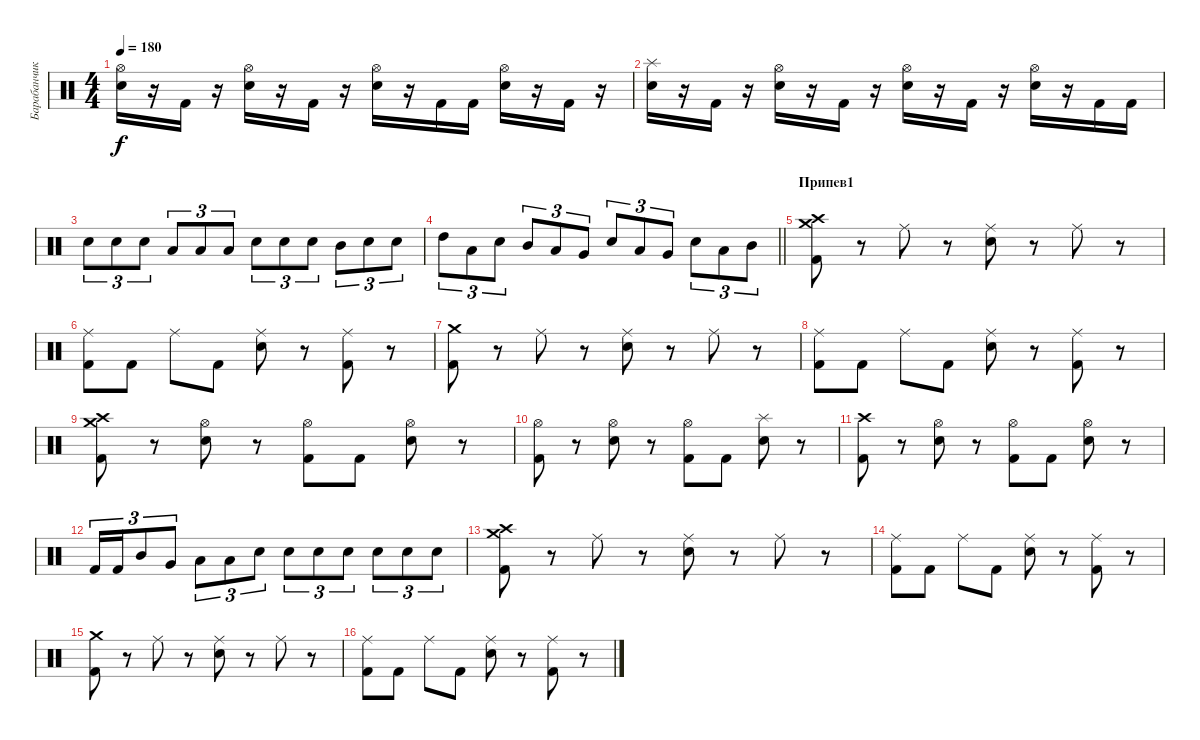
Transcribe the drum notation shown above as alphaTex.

\track ("Барабанчики" "Барабанчик") {instrument percussion}
\staff {score}
\articulation defaults
\ts (4 4)
\tempo 180
\clef neutral
\ks c
("Electric Snare (hit)" "Hi-Hat (open)").16{dy f} r.16 "Kick (hit) 2".16 r.16 ("Electric Snare (hit)" "Hi-Hat (open)").16 r.16 "Kick (hit) 2".16 r.16 ("Electric Snare (hit)" "Hi-Hat (open)").16 r.16 "Kick (hit) 2".16 "Kick (hit) 2".16 ("Electric Snare (hit)" "Hi-Hat (open)").16 r.16 "Kick (hit) 2".16 r.16 |
("Electric Snare (hit)" "Splash (hit)").16 r.16 "Kick (hit) 2".16 r.16 ("Electric Snare (hit)" "Hi-Hat (open)").16 r.16 "Kick (hit) 2".16 r.16 ("Electric Snare (hit)" "Hi-Hat (open)").16 r.16 "Kick (hit) 2".16 r.16 ("Electric Snare (hit)" "Hi-Hat (open)").16 r.16 "Kick (hit) 2".16 "Kick (hit) 2".16 |
"Electric Snare (hit)".8{tu (3 2)} "Electric Snare (hit)".8{tu (3 2)} "Electric Snare (hit)".8{tu (3 2)} "Low Tom (hit)".8{tu (3 2)} "Low Tom (hit)".8{tu (3 2)} "Low Tom (hit)".8{tu (3 2)} "Electric Snare (hit)".8{tu (3 2)} "Electric Snare (hit)".8{tu (3 2)} "Electric Snare (hit)".8{tu (3 2)} "Mid Tom (hit)".8{tu (3 2)} "Electric Snare (hit)".8{tu (3 2)} "Electric Snare (hit)".8{tu (3 2)} |
\barLineRight lightlight "High Tom (hit)".8{tu (3 2)} "Low Tom (hit)".8{tu (3 2)} "Electric Snare (hit)".8{tu (3 2)} "Mid Tom (hit)".8{tu (3 2)} "Low Floor Tom (hit)".8{tu (3 2)} "Very Low Tom (hit)".8{tu (3 2)} "Electric Snare (hit)".8{tu (3 2)} "Low Tom (hit)".8{tu (3 2)} "Very Low Tom (hit)".8{tu (3 2)} "Electric Snare (hit)".8{tu (3 2)} "Low Floor Tom (hit)".8{tu (3 2)} "Mid Tom (hit)".8{tu (3 2)}
|
\section ("" "Припев1")
("Kick (hit) 2" "Crash high (hit)" "Crash medium (hit)").8 r.8 "Ride (middle)".8 r.8 ("Electric Snare (hit)" "Ride (middle)").8 r.8 "Ride (middle)".8 r.8 |
("Kick (hit) 2" "Ride (middle)").8 "Kick (hit) 2".8 "Ride (middle)".8 "Kick (hit) 2".8 ("Electric Snare (hit)" "Ride (middle)").8 r.8 ("Kick (hit) 2" "Ride (middle)").8 r.8 |
("Kick (hit) 2" "Crash medium (hit)").8 r.8 "Ride (middle)".8 r.8 ("Electric Snare (hit)" "Ride (middle)").8 r.8 "Ride (middle)".8 r.8 |
("Kick (hit) 2" "Ride (middle)").8 "Kick (hit) 2".8 "Ride (middle)".8 "Kick (hit) 2".8 ("Electric Snare (hit)" "Ride (middle)").8 r.8 ("Kick (hit) 2" "Ride (middle)").8 r.8 |
("Kick (hit) 2" "Crash high (hit)" "Crash medium (hit)").8 r.8 ("Electric Snare (hit)" "Hi-Hat (open)").8 r.8 ("Kick (hit) 2" "Hi-Hat (open)").8 "Kick (hit) 2".8 ("Electric Snare (hit)" "Hi-Hat (open)").8 r.8 |
("Kick (hit) 2" "Hi-Hat (open)").8 r.8 ("Electric Snare (hit)" "Hi-Hat (open)").8 r.8 ("Kick (hit) 2" "Hi-Hat (open)").8 "Kick (hit) 2".8 ("Electric Snare (hit)" "Splash (hit)").8 r.8 |
("Kick (hit) 2" "Crash high (hit)").8 r.8 ("Electric Snare (hit)" "Hi-Hat (open)").8 r.8 ("Kick (hit) 2" "Hi-Hat (open)").8 "Kick (hit) 2".8 ("Electric Snare (hit)" "Hi-Hat (open)").8 r.8 |
"Kick (hit) 2".16{tu (3 2)} "Kick (hit) 2".16{tu (3 2)} "Mid Tom (hit)".8{tu (3 2)} "Very Low Tom (hit)".8{tu (3 2)} "Low Tom (hit)".8{tu (3 2)} "Low Floor Tom (hit)".8{tu (3 2)} "Electric Snare (hit)".8{tu (3 2)} "Electric Snare (hit)".8{tu (3 2)} "Electric Snare (hit)".8{tu (3 2)} "Electric Snare (hit)".8{tu (3 2)} "Electric Snare (hit)".8{tu (3 2)} "Electric Snare (hit)".8{tu (3 2)} "Electric Snare (hit)".8{tu (3 2)} |
("Kick (hit) 2" "Crash high (hit)" "Crash medium (hit)").8 r.8 "Ride (middle)".8 r.8 ("Electric Snare (hit)" "Ride (middle)").8 r.8 "Ride (middle)".8 r.8 |
("Kick (hit) 2" "Ride (middle)").8 "Kick (hit) 2".8 "Ride (middle)".8 "Kick (hit) 2".8 ("Electric Snare (hit)" "Ride (middle)").8 r.8 ("Kick (hit) 2" "Ride (middle)").8 r.8 |
("Kick (hit) 2" "Crash medium (hit)").8 r.8 "Ride (middle)".8 r.8 ("Electric Snare (hit)" "Ride (middle)").8 r.8 "Ride (middle)".8 r.8 |
("Kick (hit) 2" "Ride (middle)").8 "Kick (hit) 2".8 "Ride (middle)".8 "Kick (hit) 2".8 ("Electric Snare (hit)" "Ride (middle)").8 r.8 ("Kick (hit) 2" "Ride (middle)").8 r.8
